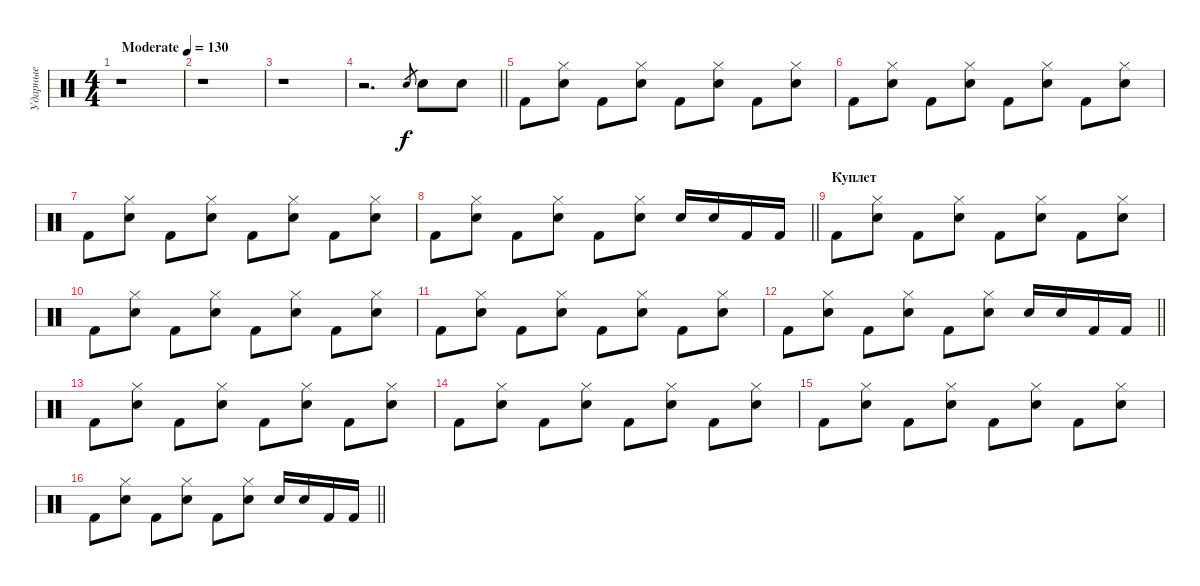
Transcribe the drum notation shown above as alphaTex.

\track ("Ударные" "Ударные") {instrument percussion}
\staff {score}
\articulation defaults
\ts (4 4)
\tempo (130 "Moderate")
\clef neutral
\ks c
r.1{dy f} |
r.1 |
r.1 |
\barLineRight lightlight
r.2{d} "Snare (hit) 2".8{gr} "Snare (hit) 2".8 "Snare (hit) 2".8 |
"Kick (hit) 2".8 ("Hi-Hat (closed)" "Snare (hit) 2").8 "Kick (hit) 2".8 ("Hi-Hat (closed)" "Snare (hit) 2").8 "Kick (hit) 2".8 ("Hi-Hat (closed)" "Snare (hit) 2").8 "Kick (hit) 2".8 ("Hi-Hat (closed)" "Snare (hit) 2").8 |
"Kick (hit) 2".8 ("Hi-Hat (closed)" "Snare (hit) 2").8 "Kick (hit) 2".8 ("Hi-Hat (closed)" "Snare (hit) 2").8 "Kick (hit) 2".8 ("Hi-Hat (closed)" "Snare (hit) 2").8 "Kick (hit) 2".8 ("Hi-Hat (closed)" "Snare (hit) 2").8 |
"Kick (hit) 2".8 ("Hi-Hat (closed)" "Snare (hit) 2").8 "Kick (hit) 2".8 ("Hi-Hat (closed)" "Snare (hit) 2").8 "Kick (hit) 2".8 ("Hi-Hat (closed)" "Snare (hit) 2").8 "Kick (hit) 2".8 ("Hi-Hat (closed)" "Snare (hit) 2").8 |
\barLineRight lightlight "Kick (hit) 2".8
("Hi-Hat (closed)" "Snare (hit) 2").8 "Kick (hit) 2".8 ("Hi-Hat (closed)" "Snare (hit) 2").8 "Kick (hit) 2".8 ("Hi-Hat (closed)" "Snare (hit) 2").8 "Snare (hit) 2".16 "Snare (hit) 2".16 "Kick (hit) 2".16 "Kick (hit) 2".16 |
\section ("" "Куплет")
"Kick (hit) 2".8 ("Hi-Hat (closed)" "Snare (hit) 2").8 "Kick (hit) 2".8 ("Hi-Hat (closed)" "Snare (hit) 2").8 "Kick (hit) 2".8 ("Hi-Hat (closed)" "Snare (hit) 2").8 "Kick (hit) 2".8 ("Hi-Hat (closed)" "Snare (hit) 2").8 |
"Kick (hit) 2".8 ("Hi-Hat (closed)" "Snare (hit) 2").8 "Kick (hit) 2".8 ("Hi-Hat (closed)" "Snare (hit) 2").8 "Kick (hit) 2".8 ("Hi-Hat (closed)" "Snare (hit) 2").8 "Kick (hit) 2".8 ("Hi-Hat (closed)" "Snare (hit) 2").8 |
"Kick (hit) 2".8 ("Hi-Hat (closed)" "Snare (hit) 2").8 "Kick (hit) 2".8 ("Hi-Hat (closed)" "Snare (hit) 2").8 "Kick (hit) 2".8 ("Hi-Hat (closed)" "Snare (hit) 2").8 "Kick (hit) 2".8 ("Hi-Hat (closed)" "Snare (hit) 2").8 |
\barLineRight lightlight "Kick (hit) 2".8
("Hi-Hat (closed)" "Snare (hit) 2").8 "Kick (hit) 2".8 ("Hi-Hat (closed)" "Snare (hit) 2").8 "Kick (hit) 2".8 ("Hi-Hat (closed)" "Snare (hit) 2").8 "Snare (hit) 2".16 "Snare (hit) 2".16 "Kick (hit) 2".16 "Kick (hit) 2".16 |
"Kick (hit) 2".8 ("Hi-Hat (closed)" "Snare (hit) 2").8 "Kick (hit) 2".8 ("Hi-Hat (closed)" "Snare (hit) 2").8 "Kick (hit) 2".8 ("Hi-Hat (closed)" "Snare (hit) 2").8 "Kick (hit) 2".8 ("Hi-Hat (closed)" "Snare (hit) 2").8 |
"Kick (hit) 2".8 ("Hi-Hat (closed)" "Snare (hit) 2").8 "Kick (hit) 2".8 ("Hi-Hat (closed)" "Snare (hit) 2").8 "Kick (hit) 2".8 ("Hi-Hat (closed)" "Snare (hit) 2").8 "Kick (hit) 2".8 ("Hi-Hat (closed)" "Snare (hit) 2").8 |
"Kick (hit) 2".8 ("Hi-Hat (closed)" "Snare (hit) 2").8 "Kick (hit) 2".8 ("Hi-Hat (closed)" "Snare (hit) 2").8 "Kick (hit) 2".8 ("Hi-Hat (closed)" "Snare (hit) 2").8 "Kick (hit) 2".8 ("Hi-Hat (closed)" "Snare (hit) 2").8 |
\barLineRight lightlight "Kick (hit) 2".8
("Hi-Hat (closed)" "Snare (hit) 2").8 "Kick (hit) 2".8 ("Hi-Hat (closed)" "Snare (hit) 2").8 "Kick (hit) 2".8 ("Hi-Hat (closed)" "Snare (hit) 2").8 "Snare (hit) 2".16 "Snare (hit) 2".16 "Kick (hit) 2".16 "Kick (hit) 2".16
